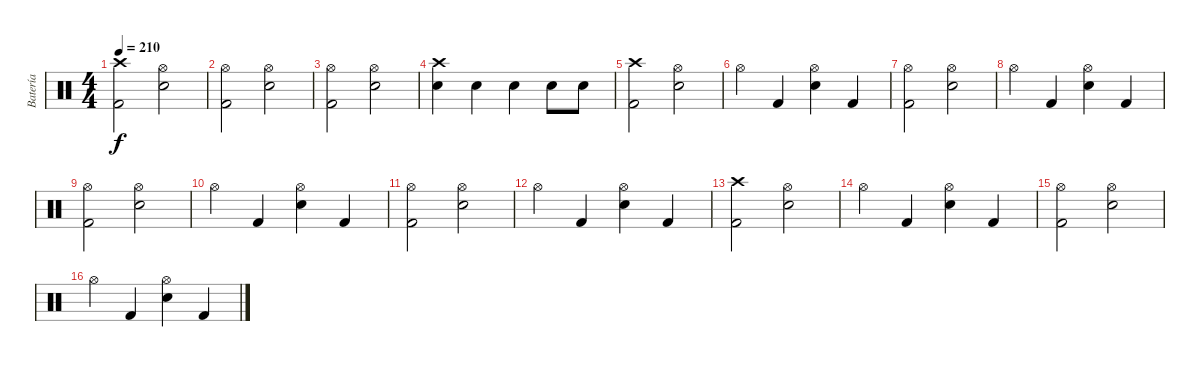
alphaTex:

\track ("Batería" "Batería") {instrument percussion}
\staff {score}
\articulation defaults
\ts (4 4)
\tempo 210
\clef neutral
\ks c
("Crash high (hit)" "Kick (hit) 2").2{dy f} ("Hi-Hat (open)" "Snare (hit) 2").2 |
("Hi-Hat (open)" "Kick (hit) 2").2 ("Hi-Hat (open)" "Snare (hit) 2").2 |
("Hi-Hat (open)" "Kick (hit) 2").2 ("Hi-Hat (open)" "Snare (hit) 2").2 |
("Snare (hit) 2" "Crash high (hit)").4 "Snare (hit) 2".4 "Snare (hit) 2".4 "Snare (hit) 2".8 "Snare (hit) 2".8 |
("Crash high (hit)" "Kick (hit) 2").2 ("Hi-Hat (open)" "Snare (hit) 2").2 |
"Hi-Hat (open)".4 "Kick (hit) 2".4 ("Hi-Hat (open)" "Snare (hit) 2").4 "Kick (hit) 2".4 |
("Hi-Hat (open)" "Kick (hit) 2").2 ("Hi-Hat (open)" "Snare (hit) 2").2 |
"Hi-Hat (open)".4 "Kick (hit) 2".4 ("Hi-Hat (open)" "Snare (hit) 2").4 "Kick (hit) 2".4 |
("Hi-Hat (open)" "Kick (hit) 2").2 ("Hi-Hat (open)" "Snare (hit) 2").2 |
"Hi-Hat (open)".4 "Kick (hit) 2".4 ("Hi-Hat (open)" "Snare (hit) 2").4 "Kick (hit) 2".4 |
("Hi-Hat (open)" "Kick (hit) 2").2 ("Hi-Hat (open)" "Snare (hit) 2").2 |
"Hi-Hat (open)".4 "Kick (hit) 2".4 ("Hi-Hat (open)" "Snare (hit) 2").4 "Kick (hit) 2".4 |
("Crash high (hit)" "Kick (hit) 2").2 ("Hi-Hat (open)" "Snare (hit) 2").2 |
"Hi-Hat (open)".4 "Kick (hit) 2".4 ("Hi-Hat (open)" "Snare (hit) 2").4 "Kick (hit) 2".4 |
("Hi-Hat (open)" "Kick (hit) 2").2 ("Hi-Hat (open)" "Snare (hit) 2").2 |
"Hi-Hat (open)".4 "Kick (hit) 2".4 ("Hi-Hat (open)" "Snare (hit) 2").4 "Kick (hit) 2".4
